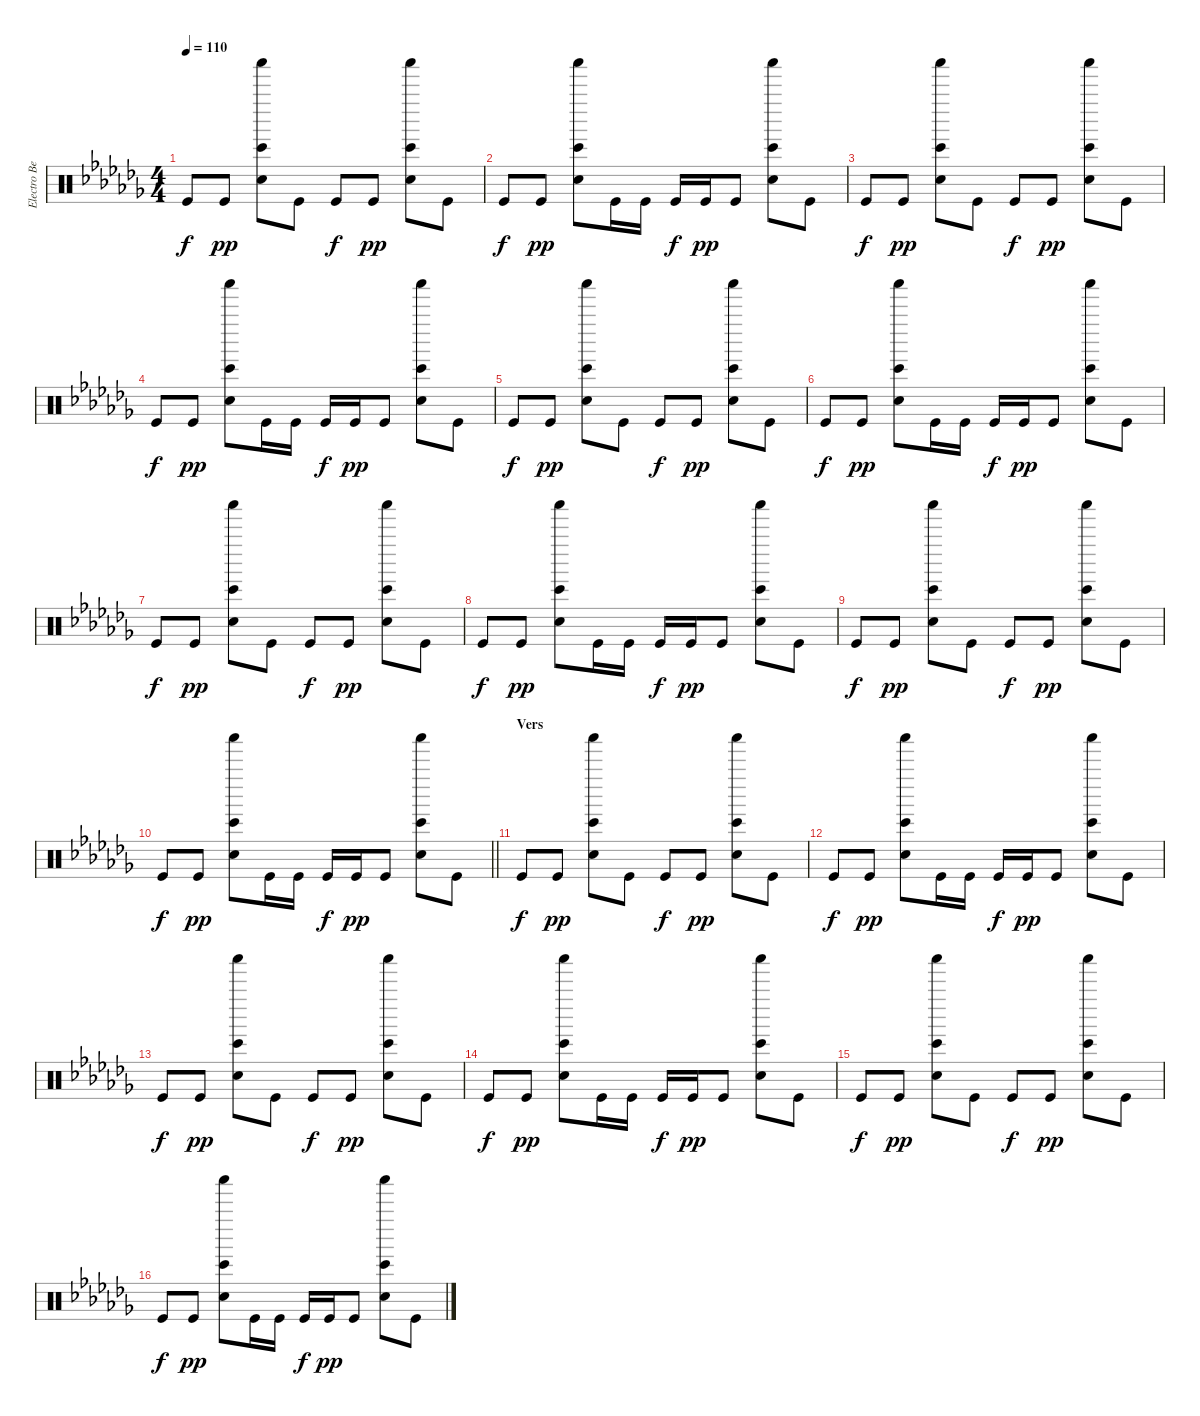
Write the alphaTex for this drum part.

\track ("Electro Beat - Joe Hahn" "Electro Be") {instrument percussion}
\staff {score}
\articulation defaults
\ts (4 4)
\tempo 110
\clef neutral
\ks abminor "Kick (hit)".8{dy f} "Kick (hit)".8{dy pp}
("Snare (hit) 2" "Bongo High (hit)" "Shaker (hit)").8 "Kick (hit)".8 "Kick (hit)".8{dy f} "Kick (hit)".8{dy pp} ("Snare (hit) 2" "Bongo High (hit)" "Shaker (hit)").8 "Kick (hit)".8 |
"Kick (hit)".8{dy f} "Kick (hit)".8{dy pp} ("Snare (hit) 2" "Bongo High (hit)" "Shaker (hit)").8 "Kick (hit)".16 "Kick (hit)".16 "Kick (hit)".16{dy f} "Kick (hit)".16{dy pp} "Kick (hit)".8 ("Snare (hit) 2" "Bongo High (hit)" "Shaker (hit)").8 "Kick (hit)".8 |
"Kick (hit)".8{dy f} "Kick (hit)".8{dy pp} ("Snare (hit) 2" "Bongo High (hit)" "Shaker (hit)").8 "Kick (hit)".8 "Kick (hit)".8{dy f} "Kick (hit)".8{dy pp} ("Snare (hit) 2" "Bongo High (hit)" "Shaker (hit)").8 "Kick (hit)".8 |
"Kick (hit)".8{dy f} "Kick (hit)".8{dy pp} ("Snare (hit) 2" "Bongo High (hit)" "Shaker (hit)").8 "Kick (hit)".16 "Kick (hit)".16 "Kick (hit)".16{dy f} "Kick (hit)".16{dy pp} "Kick (hit)".8 ("Snare (hit) 2" "Bongo High (hit)" "Shaker (hit)").8 "Kick (hit)".8 |
"Kick (hit)".8{dy f} "Kick (hit)".8{dy pp} ("Snare (hit) 2" "Bongo High (hit)" "Shaker (hit)").8 "Kick (hit)".8 "Kick (hit)".8{dy f} "Kick (hit)".8{dy pp} ("Snare (hit) 2" "Bongo High (hit)" "Shaker (hit)").8 "Kick (hit)".8 |
"Kick (hit)".8{dy f} "Kick (hit)".8{dy pp} ("Snare (hit) 2" "Bongo High (hit)" "Shaker (hit)").8 "Kick (hit)".16 "Kick (hit)".16 "Kick (hit)".16{dy f} "Kick (hit)".16{dy pp} "Kick (hit)".8 ("Snare (hit) 2" "Bongo High (hit)" "Shaker (hit)").8 "Kick (hit)".8 |
"Kick (hit)".8{dy f} "Kick (hit)".8{dy pp} ("Snare (hit) 2" "Bongo High (hit)" "Shaker (hit)").8 "Kick (hit)".8 "Kick (hit)".8{dy f} "Kick (hit)".8{dy pp} ("Snare (hit) 2" "Bongo High (hit)" "Shaker (hit)").8 "Kick (hit)".8 |
"Kick (hit)".8{dy f} "Kick (hit)".8{dy pp} ("Snare (hit) 2" "Bongo High (hit)" "Shaker (hit)").8 "Kick (hit)".16 "Kick (hit)".16 "Kick (hit)".16{dy f} "Kick (hit)".16{dy pp} "Kick (hit)".8 ("Snare (hit) 2" "Bongo High (hit)" "Shaker (hit)").8 "Kick (hit)".8 |
"Kick (hit)".8{dy f} "Kick (hit)".8{dy pp} ("Snare (hit) 2" "Bongo High (hit)" "Shaker (hit)").8 "Kick (hit)".8 "Kick (hit)".8{dy f} "Kick (hit)".8{dy pp} ("Snare (hit) 2" "Bongo High (hit)" "Shaker (hit)").8 "Kick (hit)".8 |
\barLineRight lightlight "Kick (hit)".8{dy f} "Kick (hit)".8{dy pp}
("Snare (hit) 2" "Bongo High (hit)" "Shaker (hit)").8 "Kick (hit)".16 "Kick (hit)".16 "Kick (hit)".16{dy f} "Kick (hit)".16{dy pp} "Kick (hit)".8 ("Snare (hit) 2" "Bongo High (hit)" "Shaker (hit)").8 "Kick (hit)".8 |
\section ("" "Vers")
"Kick (hit)".8{dy f} "Kick (hit)".8{dy pp} ("Snare (hit) 2" "Bongo High (hit)" "Shaker (hit)").8 "Kick (hit)".8 "Kick (hit)".8{dy f} "Kick (hit)".8{dy pp} ("Snare (hit) 2" "Bongo High (hit)" "Shaker (hit)").8 "Kick (hit)".8 |
"Kick (hit)".8{dy f} "Kick (hit)".8{dy pp} ("Snare (hit) 2" "Bongo High (hit)" "Shaker (hit)").8 "Kick (hit)".16 "Kick (hit)".16 "Kick (hit)".16{dy f} "Kick (hit)".16{dy pp} "Kick (hit)".8 ("Snare (hit) 2" "Bongo High (hit)" "Shaker (hit)").8 "Kick (hit)".8 |
"Kick (hit)".8{dy f} "Kick (hit)".8{dy pp} ("Snare (hit) 2" "Bongo High (hit)" "Shaker (hit)").8 "Kick (hit)".8 "Kick (hit)".8{dy f} "Kick (hit)".8{dy pp} ("Snare (hit) 2" "Bongo High (hit)" "Shaker (hit)").8 "Kick (hit)".8 |
"Kick (hit)".8{dy f} "Kick (hit)".8{dy pp} ("Snare (hit) 2" "Bongo High (hit)" "Shaker (hit)").8 "Kick (hit)".16 "Kick (hit)".16 "Kick (hit)".16{dy f} "Kick (hit)".16{dy pp} "Kick (hit)".8 ("Snare (hit) 2" "Bongo High (hit)" "Shaker (hit)").8 "Kick (hit)".8 |
"Kick (hit)".8{dy f} "Kick (hit)".8{dy pp} ("Snare (hit) 2" "Bongo High (hit)" "Shaker (hit)").8 "Kick (hit)".8 "Kick (hit)".8{dy f} "Kick (hit)".8{dy pp} ("Snare (hit) 2" "Bongo High (hit)" "Shaker (hit)").8 "Kick (hit)".8 |
"Kick (hit)".8{dy f} "Kick (hit)".8{dy pp} ("Snare (hit) 2" "Bongo High (hit)" "Shaker (hit)").8 "Kick (hit)".16 "Kick (hit)".16 "Kick (hit)".16{dy f} "Kick (hit)".16{dy pp} "Kick (hit)".8 ("Snare (hit) 2" "Bongo High (hit)" "Shaker (hit)").8 "Kick (hit)".8
